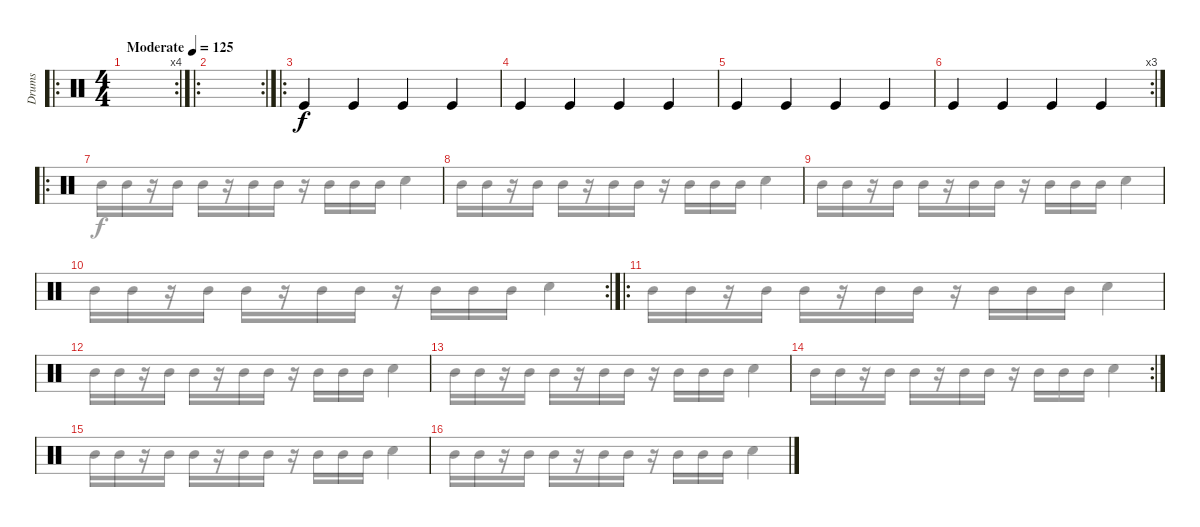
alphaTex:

\track ("Drums" "Drums") {instrument percussion}
\staff {score}
\articulation defaults
\voice
\ro
\rc 4
\ts (4 4)
\tempo (125 "Moderate")
\clef neutral
\ks c
|
\ro
\rc 2
|
\ro "Kick (hit)".4 "Kick (hit)".4 "Kick (hit)".4 "Kick (hit)".4
|
"Kick (hit)".4 "Kick (hit)".4 "Kick (hit)".4 "Kick (hit)".4 |
"Kick (hit)".4 "Kick (hit)".4 "Kick (hit)".4 "Kick (hit)".4 |
\rc 3 "Kick (hit)".4 "Kick (hit)".4 "Kick (hit)".4 "Kick (hit)".4
|
\ro
|
|
|
\rc 2
|
\ro
|
|
|
\rc 2
|
|
\voice
\clef neutral
\ottava regular
\simile none
\ks c
|
|
|
|
|
|
"Mid Tom (hit)".16 "Mid Tom (hit)".16 r.16 "Mid Tom (hit)".16 "Mid Tom (hit)".16 r.16 "Mid Tom (hit)".16 "Mid Tom (hit)".16 r.16 "Mid Tom (hit)".16 "Mid Tom (hit)".16 "Mid Tom (hit)".16 "Electric Snare (hit)".4 |
"Mid Tom (hit)".16 "Mid Tom (hit)".16 r.16 "Mid Tom (hit)".16 "Mid Tom (hit)".16 r.16 "Mid Tom (hit)".16 "Mid Tom (hit)".16 r.16 "Mid Tom (hit)".16 "Mid Tom (hit)".16 "Mid Tom (hit)".16 "Electric Snare (hit)".4 |
"Mid Tom (hit)".16 "Mid Tom (hit)".16 r.16 "Mid Tom (hit)".16 "Mid Tom (hit)".16 r.16 "Mid Tom (hit)".16 "Mid Tom (hit)".16 r.16 "Mid Tom (hit)".16 "Mid Tom (hit)".16 "Mid Tom (hit)".16 "Electric Snare (hit)".4 |
"Mid Tom (hit)".16 "Mid Tom (hit)".16 r.16 "Mid Tom (hit)".16 "Mid Tom (hit)".16 r.16 "Mid Tom (hit)".16 "Mid Tom (hit)".16 r.16 "Mid Tom (hit)".16 "Mid Tom (hit)".16 "Mid Tom (hit)".16 "Electric Snare (hit)".4 |
"Mid Tom (hit)".16 "Mid Tom (hit)".16 r.16 "Mid Tom (hit)".16 "Mid Tom (hit)".16 r.16 "Mid Tom (hit)".16 "Mid Tom (hit)".16 r.16 "Mid Tom (hit)".16 "Mid Tom (hit)".16 "Mid Tom (hit)".16 "Electric Snare (hit)".4 |
"Mid Tom (hit)".16 "Mid Tom (hit)".16 r.16 "Mid Tom (hit)".16 "Mid Tom (hit)".16 r.16 "Mid Tom (hit)".16 "Mid Tom (hit)".16 r.16 "Mid Tom (hit)".16 "Mid Tom (hit)".16 "Mid Tom (hit)".16 "Electric Snare (hit)".4 |
"Mid Tom (hit)".16 "Mid Tom (hit)".16 r.16 "Mid Tom (hit)".16 "Mid Tom (hit)".16 r.16 "Mid Tom (hit)".16 "Mid Tom (hit)".16 r.16 "Mid Tom (hit)".16 "Mid Tom (hit)".16 "Mid Tom (hit)".16 "Electric Snare (hit)".4 |
"Mid Tom (hit)".16 "Mid Tom (hit)".16 r.16 "Mid Tom (hit)".16 "Mid Tom (hit)".16 r.16 "Mid Tom (hit)".16 "Mid Tom (hit)".16 r.16 "Mid Tom (hit)".16 "Mid Tom (hit)".16 "Mid Tom (hit)".16 "Electric Snare (hit)".4 |
"Mid Tom (hit)".16 "Mid Tom (hit)".16 r.16 "Mid Tom (hit)".16 "Mid Tom (hit)".16 r.16 "Mid Tom (hit)".16 "Mid Tom (hit)".16 r.16 "Mid Tom (hit)".16 "Mid Tom (hit)".16 "Mid Tom (hit)".16 "Electric Snare (hit)".4 |
"Mid Tom (hit)".16 "Mid Tom (hit)".16 r.16 "Mid Tom (hit)".16 "Mid Tom (hit)".16 r.16 "Mid Tom (hit)".16 "Mid Tom (hit)".16 r.16 "Mid Tom (hit)".16 "Mid Tom (hit)".16 "Mid Tom (hit)".16 "Electric Snare (hit)".4
